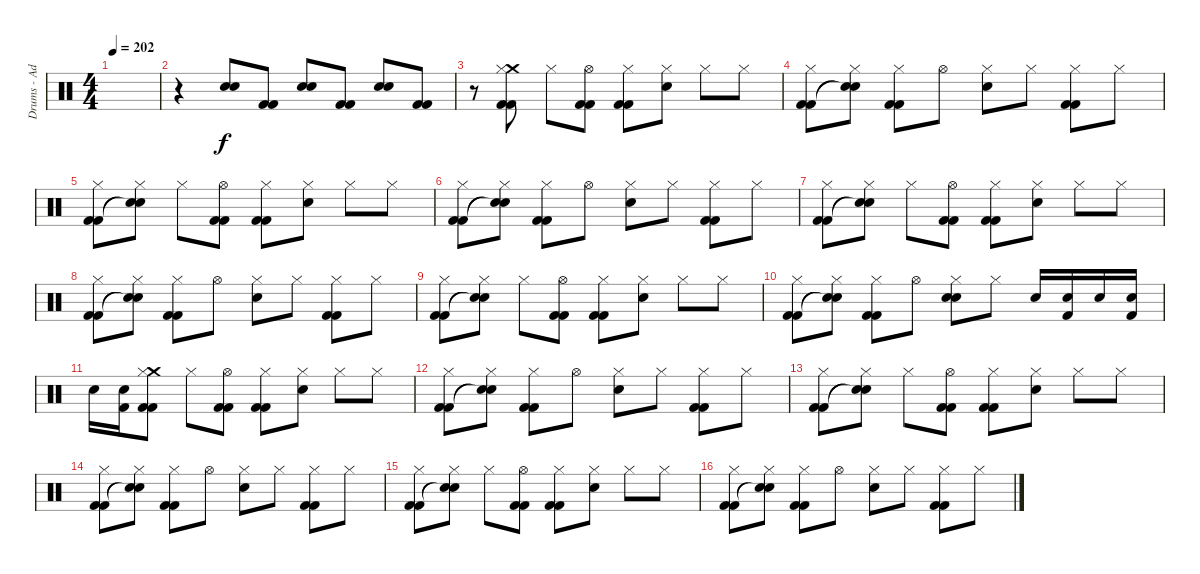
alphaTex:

\track ("Drums - Adam" "Drums - Ad") {instrument percussion}
\staff {score}
\articulation defaults
\ts (4 4)
\tempo 202
\clef neutral
\ks c
|
r.4 ("Snare (hit) 2" "Electric Snare (hit)").8 ("Kick (hit) 2" "Kick (hit) 2").8 ("Snare (hit) 2" "Electric Snare (hit)").8 ("Kick (hit) 2" "Kick (hit) 2").8 ("Snare (hit) 2" "Electric Snare (hit)").8 ("Kick (hit) 2" "Kick (hit) 2").8 |
r.8 ("Crash medium (hit)" "Hi-Hat (closed)" "Kick (hit) 2" "Kick (hit) 2").8 "Hi-Hat (closed)".8 ("Hi-Hat (open)" "Kick (hit) 2" "Kick (hit) 2").8 ("Hi-Hat (closed)" "Kick (hit) 2" "Kick (hit) 2").8 ("Hi-Hat (closed)" "Electric Snare (hit)").8 "Hi-Hat (closed)".8 "Hi-Hat (closed)".8 |
("Hi-Hat (closed)" "Kick (hit) 2" "Kick (hit) 2").8 ("Hi-Hat (closed)" "Snare (hit)"{t} "Snare (hit)"{t}).8 ("Hi-Hat (closed)" "Kick (hit) 2" "Kick (hit) 2").8 "Hi-Hat (open)".8 ("Hi-Hat (closed)" "Electric Snare (hit)").8 "Hi-Hat (closed)".8 ("Hi-Hat (closed)" "Kick (hit) 2" "Kick (hit) 2").8 "Hi-Hat (closed)".8 |
("Hi-Hat (closed)" "Kick (hit) 2" "Kick (hit) 2").8 ("Hi-Hat (closed)" "Snare (hit)"{t} "Snare (hit)"{t}).8 "Hi-Hat (closed)".8 ("Hi-Hat (open)" "Kick (hit) 2" "Kick (hit) 2").8 ("Hi-Hat (closed)" "Kick (hit) 2" "Kick (hit) 2").8 ("Hi-Hat (closed)" "Electric Snare (hit)").8 "Hi-Hat (closed)".8 "Hi-Hat (closed)".8 |
("Hi-Hat (closed)" "Kick (hit) 2" "Kick (hit) 2").8 ("Hi-Hat (closed)" "Snare (hit)"{t} "Snare (hit)"{t}).8 ("Hi-Hat (closed)" "Kick (hit) 2" "Kick (hit) 2").8 "Hi-Hat (open)".8 ("Hi-Hat (closed)" "Electric Snare (hit)").8 "Hi-Hat (closed)".8 ("Hi-Hat (closed)" "Kick (hit) 2" "Kick (hit) 2").8 "Hi-Hat (closed)".8 |
("Hi-Hat (closed)" "Kick (hit) 2" "Kick (hit) 2").8 ("Hi-Hat (closed)" "Snare (hit)"{t} "Snare (hit)"{t}).8 "Hi-Hat (closed)".8 ("Hi-Hat (open)" "Kick (hit) 2" "Kick (hit) 2").8 ("Hi-Hat (closed)" "Kick (hit) 2" "Kick (hit) 2").8 ("Hi-Hat (closed)" "Electric Snare (hit)").8 "Hi-Hat (closed)".8 "Hi-Hat (closed)".8 |
("Hi-Hat (closed)" "Kick (hit) 2" "Kick (hit) 2").8 ("Hi-Hat (closed)" "Snare (hit)"{t} "Snare (hit)"{t}).8 ("Hi-Hat (closed)" "Kick (hit) 2" "Kick (hit) 2").8 "Hi-Hat (open)".8 ("Hi-Hat (closed)" "Electric Snare (hit)").8 "Hi-Hat (closed)".8 ("Hi-Hat (closed)" "Kick (hit) 2" "Kick (hit) 2").8 "Hi-Hat (closed)".8 |
("Hi-Hat (closed)" "Kick (hit) 2" "Kick (hit) 2").8 ("Hi-Hat (closed)" "Snare (hit)"{t} "Snare (hit)"{t}).8 "Hi-Hat (closed)".8 ("Hi-Hat (open)" "Kick (hit) 2" "Kick (hit) 2").8 ("Hi-Hat (closed)" "Kick (hit) 2" "Kick (hit) 2").8 ("Hi-Hat (closed)" "Electric Snare (hit)").8 "Hi-Hat (closed)".8 "Hi-Hat (closed)".8 |
("Hi-Hat (closed)" "Kick (hit) 2" "Kick (hit) 2").8 ("Hi-Hat (closed)" "Snare (hit)"{t} "Snare (hit)"{t}).8 ("Hi-Hat (closed)" "Kick (hit) 2" "Kick (hit) 2").8 "Hi-Hat (open)".8 ("Hi-Hat (closed)" "Snare (hit) 2" "Electric Snare (hit)").8 "Hi-Hat (closed)".8 "Electric Snare (hit)".16 ("Electric Snare (hit)" "Kick (hit) 2").16 "Electric Snare (hit)".16 ("Electric Snare (hit)" "Kick (hit) 2").16 |
"Electric Snare (hit)".16 ("Electric Snare (hit)" "Kick (hit) 2").16 ("Crash medium (hit)" "Hi-Hat (closed)" "Kick (hit) 2" "Kick (hit) 2").8 "Hi-Hat (closed)".8 ("Hi-Hat (open)" "Kick (hit) 2" "Kick (hit) 2").8 ("Hi-Hat (closed)" "Kick (hit) 2" "Kick (hit) 2").8 ("Hi-Hat (closed)" "Electric Snare (hit)").8 "Hi-Hat (closed)".8 "Hi-Hat (closed)".8 |
("Hi-Hat (closed)" "Kick (hit) 2" "Kick (hit) 2").8 ("Hi-Hat (closed)" "Snare (hit)"{t} "Snare (hit)"{t}).8 ("Hi-Hat (closed)" "Kick (hit) 2" "Kick (hit) 2").8 "Hi-Hat (open)".8 ("Hi-Hat (closed)" "Electric Snare (hit)").8 "Hi-Hat (closed)".8 ("Hi-Hat (closed)" "Kick (hit) 2" "Kick (hit) 2").8 "Hi-Hat (closed)".8 |
("Hi-Hat (closed)" "Kick (hit) 2" "Kick (hit) 2").8 ("Hi-Hat (closed)" "Snare (hit)"{t} "Snare (hit)"{t}).8 "Hi-Hat (closed)".8 ("Hi-Hat (open)" "Kick (hit) 2" "Kick (hit) 2").8 ("Hi-Hat (closed)" "Kick (hit) 2" "Kick (hit) 2").8 ("Hi-Hat (closed)" "Electric Snare (hit)").8 "Hi-Hat (closed)".8 "Hi-Hat (closed)".8 |
("Hi-Hat (closed)" "Kick (hit) 2" "Kick (hit) 2").8 ("Hi-Hat (closed)" "Snare (hit)"{t} "Snare (hit)"{t}).8 ("Hi-Hat (closed)" "Kick (hit) 2" "Kick (hit) 2").8 "Hi-Hat (open)".8 ("Hi-Hat (closed)" "Electric Snare (hit)").8 "Hi-Hat (closed)".8 ("Hi-Hat (closed)" "Kick (hit) 2" "Kick (hit) 2").8 "Hi-Hat (closed)".8 |
("Hi-Hat (closed)" "Kick (hit) 2" "Kick (hit) 2").8 ("Hi-Hat (closed)" "Snare (hit)"{t} "Snare (hit)"{t}).8 "Hi-Hat (closed)".8 ("Hi-Hat (open)" "Kick (hit) 2" "Kick (hit) 2").8 ("Hi-Hat (closed)" "Kick (hit) 2" "Kick (hit) 2").8 ("Hi-Hat (closed)" "Electric Snare (hit)").8 "Hi-Hat (closed)".8 "Hi-Hat (closed)".8 |
("Hi-Hat (closed)" "Kick (hit) 2" "Kick (hit) 2").8 ("Hi-Hat (closed)" "Snare (hit)"{t} "Snare (hit)"{t}).8 ("Hi-Hat (closed)" "Kick (hit) 2" "Kick (hit) 2").8 "Hi-Hat (open)".8 ("Hi-Hat (closed)" "Electric Snare (hit)").8 "Hi-Hat (closed)".8 ("Hi-Hat (closed)" "Kick (hit) 2" "Kick (hit) 2").8 "Hi-Hat (closed)".8
